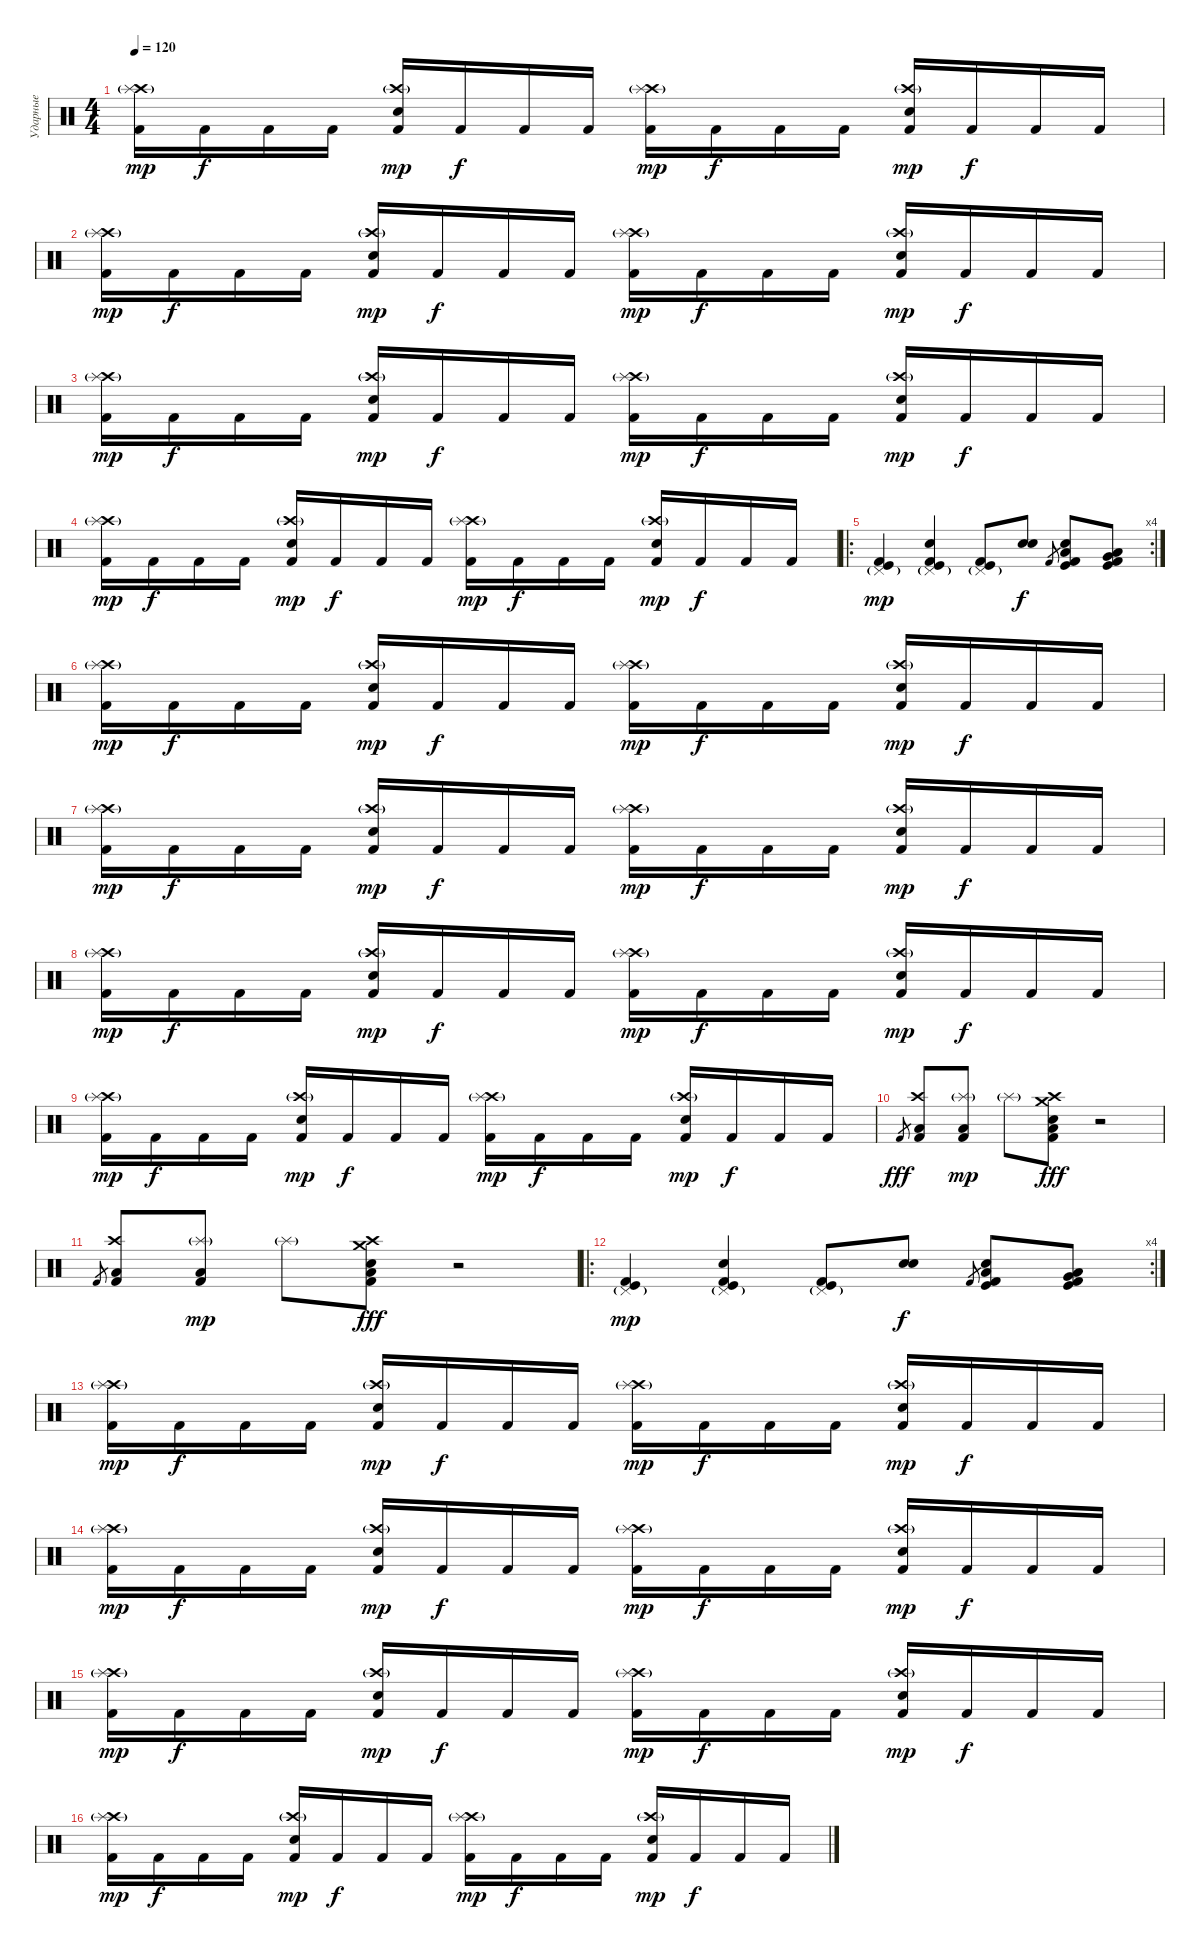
\track ("Ударные" "Ударные") {instrument percussion bank 2}
\staff {score}
\articulation defaults
\ts (4 4)
\tempo 120
\clef neutral
\ks c
("Kick (hit) 2" "Crash high (hit)"{g} "Splash (hit)"{g}).16{dy mp} "Kick (hit) 2".16{dy f} "Kick (hit) 2".16 "Kick (hit) 2".16 ("Kick (hit) 2" "Snare (hit) 2" "Crash high (hit)"{g}).16{dy mp} "Kick (hit) 2".16{dy f} "Kick (hit) 2".16 "Kick (hit) 2".16 ("Kick (hit) 2" "Crash high (hit)"{g} "Splash (hit)"{g}).16{dy mp} "Kick (hit) 2".16{dy f} "Kick (hit) 2".16 "Kick (hit) 2".16 ("Kick (hit) 2" "Snare (hit) 2" "Crash high (hit)"{g}).16{dy mp} "Kick (hit) 2".16{dy f} "Kick (hit) 2".16 "Kick (hit) 2".16 |
("Kick (hit) 2" "Crash high (hit)"{g} "Splash (hit)"{g}).16{dy mp} "Kick (hit) 2".16{dy f} "Kick (hit) 2".16 "Kick (hit) 2".16 ("Kick (hit) 2" "Snare (hit) 2" "Crash high (hit)"{g}).16{dy mp} "Kick (hit) 2".16{dy f} "Kick (hit) 2".16 "Kick (hit) 2".16 ("Kick (hit) 2" "Crash high (hit)"{g} "Splash (hit)"{g}).16{dy mp} "Kick (hit) 2".16{dy f} "Kick (hit) 2".16 "Kick (hit) 2".16 ("Kick (hit) 2" "Snare (hit) 2" "Crash high (hit)"{g}).16{dy mp} "Kick (hit) 2".16{dy f} "Kick (hit) 2".16 "Kick (hit) 2".16 |
("Kick (hit) 2" "Crash high (hit)"{g} "Splash (hit)"{g}).16{dy mp} "Kick (hit) 2".16{dy f} "Kick (hit) 2".16 "Kick (hit) 2".16 ("Kick (hit) 2" "Snare (hit) 2" "Crash high (hit)"{g}).16{dy mp} "Kick (hit) 2".16{dy f} "Kick (hit) 2".16 "Kick (hit) 2".16 ("Kick (hit) 2" "Crash high (hit)"{g} "Splash (hit)"{g}).16{dy mp} "Kick (hit) 2".16{dy f} "Kick (hit) 2".16 "Kick (hit) 2".16 ("Kick (hit) 2" "Snare (hit) 2" "Crash high (hit)"{g}).16{dy mp} "Kick (hit) 2".16{dy f} "Kick (hit) 2".16 "Kick (hit) 2".16 |
("Kick (hit) 2" "Crash high (hit)"{g} "Splash (hit)"{g}).16{dy mp} "Kick (hit) 2".16{dy f} "Kick (hit) 2".16 "Kick (hit) 2".16 ("Kick (hit) 2" "Snare (hit) 2" "Crash high (hit)"{g}).16{dy mp} "Kick (hit) 2".16{dy f} "Kick (hit) 2".16 "Kick (hit) 2".16 ("Kick (hit) 2" "Crash high (hit)"{g} "Splash (hit)"{g}).16{dy mp} "Kick (hit) 2".16{dy f} "Kick (hit) 2".16 "Kick (hit) 2".16 ("Kick (hit) 2" "Snare (hit) 2" "Crash high (hit)"{g}).16{dy mp} "Kick (hit) 2".16{dy f} "Kick (hit) 2".16 "Kick (hit) 2".16 |
\ro
\rc 4
("Kick (hit) 2" "Pedal Hi-Hat (hit)"{g} "Kick (hit)").4{dy mp} ("Kick (hit) 2" "Pedal Hi-Hat (hit)"{g} "Snare (hit) 2" "Kick (hit)").4 ("Kick (hit) 2" "Pedal Hi-Hat (hit)"{g} "Kick (hit)").8 ("Snare (hit)" "Snare (hit)").8{dy f} "Kick (hit) 2".8{gr} ("Kick (hit) 2" "Low Tom (hit)" "Snare (hit) 2" "Kick (hit)").8 ("Kick (hit) 2" "Very Low Tom (hit)" "Low Floor Tom (hit)" "Kick (hit)").8 |
("Kick (hit) 2" "Crash high (hit)"{g} "Splash (hit)"{g}).16{dy mp} "Kick (hit) 2".16{dy f} "Kick (hit) 2".16 "Kick (hit) 2".16 ("Kick (hit) 2" "Snare (hit) 2" "Crash high (hit)"{g}).16{dy mp} "Kick (hit) 2".16{dy f} "Kick (hit) 2".16 "Kick (hit) 2".16 ("Kick (hit) 2" "Crash high (hit)"{g} "Splash (hit)"{g}).16{dy mp} "Kick (hit) 2".16{dy f} "Kick (hit) 2".16 "Kick (hit) 2".16 ("Kick (hit) 2" "Snare (hit) 2" "Crash high (hit)"{g}).16{dy mp} "Kick (hit) 2".16{dy f} "Kick (hit) 2".16 "Kick (hit) 2".16 |
("Kick (hit) 2" "Crash high (hit)"{g} "Splash (hit)"{g}).16{dy mp} "Kick (hit) 2".16{dy f} "Kick (hit) 2".16 "Kick (hit) 2".16 ("Kick (hit) 2" "Snare (hit) 2" "Crash high (hit)"{g}).16{dy mp} "Kick (hit) 2".16{dy f} "Kick (hit) 2".16 "Kick (hit) 2".16 ("Kick (hit) 2" "Crash high (hit)"{g} "Splash (hit)"{g}).16{dy mp} "Kick (hit) 2".16{dy f} "Kick (hit) 2".16 "Kick (hit) 2".16 ("Kick (hit) 2" "Snare (hit) 2" "Crash high (hit)"{g}).16{dy mp} "Kick (hit) 2".16{dy f} "Kick (hit) 2".16 "Kick (hit) 2".16 |
("Kick (hit) 2" "Crash high (hit)"{g} "Splash (hit)"{g}).16{dy mp} "Kick (hit) 2".16{dy f} "Kick (hit) 2".16 "Kick (hit) 2".16 ("Kick (hit) 2" "Snare (hit) 2" "Crash high (hit)"{g}).16{dy mp} "Kick (hit) 2".16{dy f} "Kick (hit) 2".16 "Kick (hit) 2".16 ("Kick (hit) 2" "Crash high (hit)"{g} "Splash (hit)"{g}).16{dy mp} "Kick (hit) 2".16{dy f} "Kick (hit) 2".16 "Kick (hit) 2".16 ("Kick (hit) 2" "Snare (hit) 2" "Crash high (hit)"{g}).16{dy mp} "Kick (hit) 2".16{dy f} "Kick (hit) 2".16 "Kick (hit) 2".16 |
("Kick (hit) 2" "Crash high (hit)"{g} "Splash (hit)"{g}).16{dy mp} "Kick (hit) 2".16{dy f} "Kick (hit) 2".16 "Kick (hit) 2".16 ("Kick (hit) 2" "Snare (hit) 2" "Crash high (hit)"{g}).16{dy mp} "Kick (hit) 2".16{dy f} "Kick (hit) 2".16 "Kick (hit) 2".16 ("Kick (hit) 2" "Crash high (hit)"{g} "Splash (hit)"{g}).16{dy mp} "Kick (hit) 2".16{dy f} "Kick (hit) 2".16 "Kick (hit) 2".16 ("Kick (hit) 2" "Snare (hit) 2" "Crash high (hit)"{g}).16{dy mp} "Kick (hit) 2".16{dy f} "Kick (hit) 2".16 "Kick (hit) 2".16 |
"Kick (hit) 2".8{gr dy fff} ("Kick (hit) 2" "Low Floor Tom (hit)" "Crash high (hit)").8 ("Kick (hit) 2" "Low Floor Tom (hit)" "Splash (hit)"{g}).8{dy mp} "Splash (hit)"{g}.8 ("Kick (hit) 2" "Low Floor Tom (hit)" "Snare (hit) 2" "Crash medium (hit)" "Crash high (hit)").8{dy fff} r.2 |
"Kick (hit) 2".8{gr} ("Kick (hit) 2" "Low Floor Tom (hit)" "Crash high (hit)").8 ("Kick (hit) 2" "Low Floor Tom (hit)" "Splash (hit)"{g}).8{dy mp} "Splash (hit)"{g}.8 ("Kick (hit) 2" "Low Floor Tom (hit)" "Snare (hit) 2" "Crash medium (hit)" "Crash high (hit)").8{dy fff} r.2 |
\ro
\rc 4
("Kick (hit) 2" "Pedal Hi-Hat (hit)"{g} "Kick (hit)").4{dy mp} ("Kick (hit) 2" "Pedal Hi-Hat (hit)"{g} "Snare (hit) 2" "Kick (hit)").4 ("Kick (hit) 2" "Pedal Hi-Hat (hit)"{g} "Kick (hit)").8 ("Snare (hit)" "Snare (hit)").8{dy f} "Kick (hit) 2".8{gr} ("Kick (hit) 2" "Low Tom (hit)" "Snare (hit) 2" "Kick (hit)").8 ("Kick (hit) 2" "Very Low Tom (hit)" "Low Floor Tom (hit)" "Kick (hit)").8 |
("Kick (hit) 2" "Crash high (hit)"{g} "Splash (hit)"{g}).16{dy mp} "Kick (hit) 2".16{dy f} "Kick (hit) 2".16 "Kick (hit) 2".16 ("Kick (hit) 2" "Snare (hit) 2" "Crash high (hit)"{g}).16{dy mp} "Kick (hit) 2".16{dy f} "Kick (hit) 2".16 "Kick (hit) 2".16 ("Kick (hit) 2" "Crash high (hit)"{g} "Splash (hit)"{g}).16{dy mp} "Kick (hit) 2".16{dy f} "Kick (hit) 2".16 "Kick (hit) 2".16 ("Kick (hit) 2" "Snare (hit) 2" "Crash high (hit)"{g}).16{dy mp} "Kick (hit) 2".16{dy f} "Kick (hit) 2".16 "Kick (hit) 2".16 |
("Kick (hit) 2" "Crash high (hit)"{g} "Splash (hit)"{g}).16{dy mp} "Kick (hit) 2".16{dy f} "Kick (hit) 2".16 "Kick (hit) 2".16 ("Kick (hit) 2" "Snare (hit) 2" "Crash high (hit)"{g}).16{dy mp} "Kick (hit) 2".16{dy f} "Kick (hit) 2".16 "Kick (hit) 2".16 ("Kick (hit) 2" "Crash high (hit)"{g} "Splash (hit)"{g}).16{dy mp} "Kick (hit) 2".16{dy f} "Kick (hit) 2".16 "Kick (hit) 2".16 ("Kick (hit) 2" "Snare (hit) 2" "Crash high (hit)"{g}).16{dy mp} "Kick (hit) 2".16{dy f} "Kick (hit) 2".16 "Kick (hit) 2".16 |
("Kick (hit) 2" "Crash high (hit)"{g} "Splash (hit)"{g}).16{dy mp} "Kick (hit) 2".16{dy f} "Kick (hit) 2".16 "Kick (hit) 2".16 ("Kick (hit) 2" "Snare (hit) 2" "Crash high (hit)"{g}).16{dy mp} "Kick (hit) 2".16{dy f} "Kick (hit) 2".16 "Kick (hit) 2".16 ("Kick (hit) 2" "Crash high (hit)"{g} "Splash (hit)"{g}).16{dy mp} "Kick (hit) 2".16{dy f} "Kick (hit) 2".16 "Kick (hit) 2".16 ("Kick (hit) 2" "Snare (hit) 2" "Crash high (hit)"{g}).16{dy mp} "Kick (hit) 2".16{dy f} "Kick (hit) 2".16 "Kick (hit) 2".16 |
("Kick (hit) 2" "Crash high (hit)"{g} "Splash (hit)"{g}).16{dy mp} "Kick (hit) 2".16{dy f} "Kick (hit) 2".16 "Kick (hit) 2".16 ("Kick (hit) 2" "Snare (hit) 2" "Crash high (hit)"{g}).16{dy mp} "Kick (hit) 2".16{dy f} "Kick (hit) 2".16 "Kick (hit) 2".16 ("Kick (hit) 2" "Crash high (hit)"{g} "Splash (hit)"{g}).16{dy mp} "Kick (hit) 2".16{dy f} "Kick (hit) 2".16 "Kick (hit) 2".16 ("Kick (hit) 2" "Snare (hit) 2" "Crash high (hit)"{g}).16{dy mp} "Kick (hit) 2".16{dy f} "Kick (hit) 2".16 "Kick (hit) 2".16
